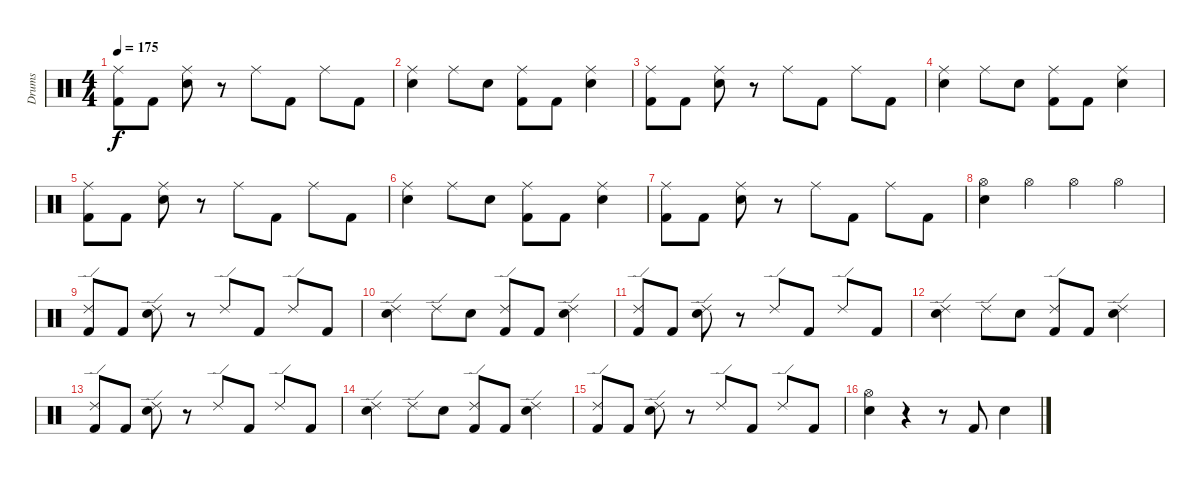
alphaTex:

\track ("Drums" "Drums") {instrument percussion}
\staff {score}
\articulation defaults
\ts (4 4)
\tempo 175
\clef neutral
\ks c
("Ride (middle)" "Kick (hit) 2").8{dy f} "Kick (hit) 2".8 ("Ride (middle)" "Electric Snare (hit)").8 r.8 "Ride (middle)".8 "Kick (hit) 2".8 "Ride (middle)".8 "Kick (hit) 2".8 |
("Ride (middle)" "Electric Snare (hit)").4 "Ride (middle)".8 "Electric Snare (hit)".8 ("Ride (middle)" "Kick (hit) 2").8 "Kick (hit) 2".8 ("Ride (middle)" "Electric Snare (hit)").4 |
("Ride (middle)" "Kick (hit) 2").8 "Kick (hit) 2".8 ("Ride (middle)" "Electric Snare (hit)").8 r.8 "Ride (middle)".8 "Kick (hit) 2".8 "Ride (middle)".8 "Kick (hit) 2".8 |
("Ride (middle)" "Electric Snare (hit)").4 "Ride (middle)".8 "Electric Snare (hit)".8 ("Ride (middle)" "Kick (hit) 2").8 "Kick (hit) 2".8 ("Ride (middle)" "Electric Snare (hit)").4 |
("Ride (middle)" "Kick (hit) 2").8 "Kick (hit) 2".8 ("Ride (middle)" "Electric Snare (hit)").8 r.8 "Ride (middle)".8 "Kick (hit) 2".8 "Ride (middle)".8 "Kick (hit) 2".8 |
("Ride (middle)" "Electric Snare (hit)").4 "Ride (middle)".8 "Electric Snare (hit)".8 ("Ride (middle)" "Kick (hit) 2").8 "Kick (hit) 2".8 ("Ride (middle)" "Electric Snare (hit)").4 |
("Ride (middle)" "Kick (hit) 2").8 "Kick (hit) 2".8 ("Ride (middle)" "Electric Snare (hit)").8 r.8 "Ride (middle)".8 "Kick (hit) 2".8 "Ride (middle)".8 "Kick (hit) 2".8 |
("Hi-Hat (open)" "Electric Snare (hit)").4 "Hi-Hat (open)".4 "Hi-Hat (open)".4 "Hi-Hat (open)".4 |
("Ride (edge) 2" "Kick (hit) 2").8 "Kick (hit) 2".8 ("Ride (edge) 2" "Electric Snare (hit)").8 r.8 "Ride (edge) 2".8 "Kick (hit) 2".8 "Ride (edge) 2".8 "Kick (hit) 2".8 |
("Ride (edge) 2" "Electric Snare (hit)").4 "Ride (edge) 2".8 "Electric Snare (hit)".8 ("Ride (edge) 2" "Kick (hit) 2").8 "Kick (hit) 2".8 ("Ride (edge) 2" "Electric Snare (hit)").4 |
("Ride (edge) 2" "Kick (hit) 2").8 "Kick (hit) 2".8 ("Ride (edge) 2" "Electric Snare (hit)").8 r.8 "Ride (edge) 2".8 "Kick (hit) 2".8 "Ride (edge) 2".8 "Kick (hit) 2".8 |
("Ride (edge) 2" "Electric Snare (hit)").4 "Ride (edge) 2".8 "Electric Snare (hit)".8 ("Ride (edge) 2" "Kick (hit) 2").8 "Kick (hit) 2".8 ("Ride (edge) 2" "Electric Snare (hit)").4 |
("Ride (edge) 2" "Kick (hit) 2").8 "Kick (hit) 2".8 ("Ride (edge) 2" "Electric Snare (hit)").8 r.8 "Ride (edge) 2".8 "Kick (hit) 2".8 "Ride (edge) 2".8 "Kick (hit) 2".8 |
("Ride (edge) 2" "Electric Snare (hit)").4 "Ride (edge) 2".8 "Electric Snare (hit)".8 ("Ride (edge) 2" "Kick (hit) 2").8 "Kick (hit) 2".8 ("Ride (edge) 2" "Electric Snare (hit)").4 |
("Ride (edge) 2" "Kick (hit) 2").8 "Kick (hit) 2".8 ("Ride (edge) 2" "Electric Snare (hit)").8 r.8 "Ride (edge) 2".8 "Kick (hit) 2".8 "Ride (edge) 2".8 "Kick (hit) 2".8 |
("Hi-Hat (open)" "Electric Snare (hit)").4 r.4 r.8 "Kick (hit) 2".8 "Electric Snare (hit)".4
